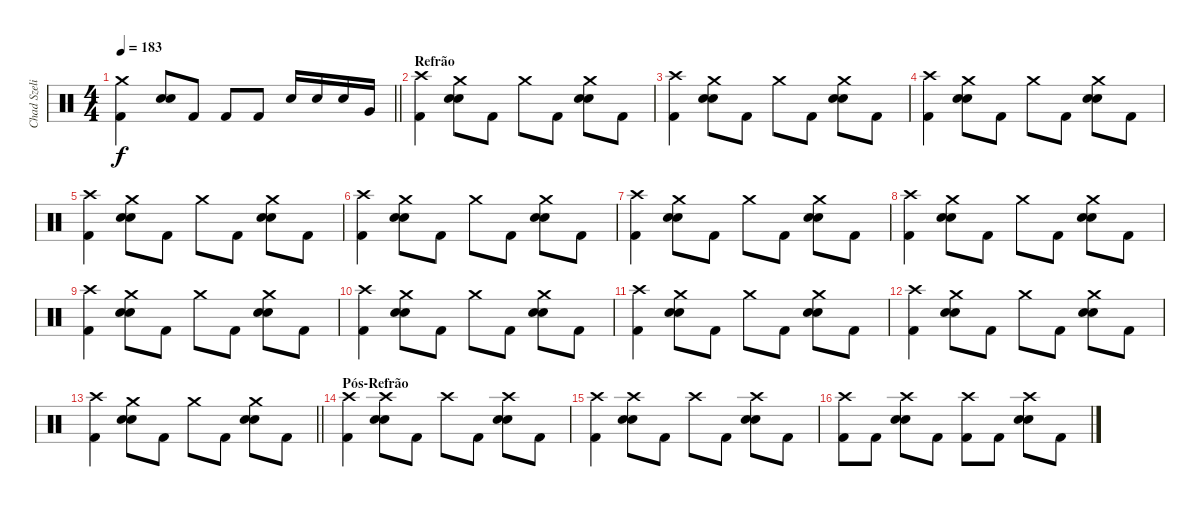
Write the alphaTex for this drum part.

\track ("Chad Szeliga" "Chad Szeli") {instrument percussion}
\staff {score}
\articulation defaults
\ts (4 4)
\tempo 183
\clef neutral
\barLineRight lightlight
\ks c
("Crash medium (hit)" "Kick (hit) 2").4{dy f} ("Snare (hit) 2" "Snare (hit) 2").8 "Kick (hit) 2".8 "Kick (hit) 2".8 "Kick (hit) 2".8 "Snare (hit) 2".16 "Snare (hit) 2".16 "Snare (hit) 2".16 "Very Low Tom (hit)".16 |
\section ("" "Refrão")
("Crash high (hit)" "Kick (hit) 2").4 ("Crash medium (hit)" "Snare (hit) 2" "Snare (hit) 2").8 "Kick (hit) 2".8 "Crash medium (hit)".8 "Kick (hit) 2".8 ("Crash medium (hit)" "Snare (hit) 2" "Snare (hit) 2").8 "Kick (hit) 2".8 |
("Crash high (hit)" "Kick (hit) 2").4 ("Crash medium (hit)" "Snare (hit) 2" "Snare (hit) 2").8 "Kick (hit) 2".8 "Crash medium (hit)".8 "Kick (hit) 2".8 ("Crash medium (hit)" "Snare (hit) 2" "Snare (hit) 2").8 "Kick (hit) 2".8 |
("Crash high (hit)" "Kick (hit) 2").4 ("Crash medium (hit)" "Snare (hit) 2" "Snare (hit) 2").8 "Kick (hit) 2".8 "Crash medium (hit)".8 "Kick (hit) 2".8 ("Crash medium (hit)" "Snare (hit) 2" "Snare (hit) 2").8 "Kick (hit) 2".8 |
("Crash high (hit)" "Kick (hit) 2").4 ("Crash medium (hit)" "Snare (hit) 2" "Snare (hit) 2").8 "Kick (hit) 2".8 "Crash medium (hit)".8 "Kick (hit) 2".8 ("Crash medium (hit)" "Snare (hit) 2" "Snare (hit) 2").8 "Kick (hit) 2".8 |
("Crash high (hit)" "Kick (hit) 2").4 ("Crash medium (hit)" "Snare (hit) 2" "Snare (hit) 2").8 "Kick (hit) 2".8 "Crash medium (hit)".8 "Kick (hit) 2".8 ("Crash medium (hit)" "Snare (hit) 2" "Snare (hit) 2").8 "Kick (hit) 2".8 |
("Crash high (hit)" "Kick (hit) 2").4 ("Crash medium (hit)" "Snare (hit) 2" "Snare (hit) 2").8 "Kick (hit) 2".8 "Crash medium (hit)".8 "Kick (hit) 2".8 ("Crash medium (hit)" "Snare (hit) 2" "Snare (hit) 2").8 "Kick (hit) 2".8 |
("Crash high (hit)" "Kick (hit) 2").4 ("Crash medium (hit)" "Snare (hit) 2" "Snare (hit) 2").8 "Kick (hit) 2".8 "Crash medium (hit)".8 "Kick (hit) 2".8 ("Crash medium (hit)" "Snare (hit) 2" "Snare (hit) 2").8 "Kick (hit) 2".8 |
("Crash high (hit)" "Kick (hit) 2").4 ("Crash medium (hit)" "Snare (hit) 2" "Snare (hit) 2").8 "Kick (hit) 2".8 "Crash medium (hit)".8 "Kick (hit) 2".8 ("Crash medium (hit)" "Snare (hit) 2" "Snare (hit) 2").8 "Kick (hit) 2".8 |
("Crash high (hit)" "Kick (hit) 2").4 ("Crash medium (hit)" "Snare (hit) 2" "Snare (hit) 2").8 "Kick (hit) 2".8 "Crash medium (hit)".8 "Kick (hit) 2".8 ("Crash medium (hit)" "Snare (hit) 2" "Snare (hit) 2").8 "Kick (hit) 2".8 |
("Crash high (hit)" "Kick (hit) 2").4 ("Crash medium (hit)" "Snare (hit) 2" "Snare (hit) 2").8 "Kick (hit) 2".8 "Crash medium (hit)".8 "Kick (hit) 2".8 ("Crash medium (hit)" "Snare (hit) 2" "Snare (hit) 2").8 "Kick (hit) 2".8 |
("Crash high (hit)" "Kick (hit) 2").4 ("Crash medium (hit)" "Snare (hit) 2" "Snare (hit) 2").8 "Kick (hit) 2".8 "Crash medium (hit)".8 "Kick (hit) 2".8 ("Crash medium (hit)" "Snare (hit) 2" "Snare (hit) 2").8 "Kick (hit) 2".8 |
\barLineRight lightlight
("Crash high (hit)" "Kick (hit) 2").4 ("Crash medium (hit)" "Snare (hit) 2" "Snare (hit) 2").8 "Kick (hit) 2".8 "Crash medium (hit)".8 "Kick (hit) 2".8 ("Crash medium (hit)" "Snare (hit) 2" "Snare (hit) 2").8 "Kick (hit) 2".8 |
\section ("" "Pós-Refrão")
("Crash high (hit)" "Kick (hit) 2").4 ("Crash high (hit)" "Snare (hit) 2" "Snare (hit) 2").8 "Kick (hit) 2".8 "Crash high (hit)".8 "Kick (hit) 2".8 ("Crash high (hit)" "Snare (hit) 2" "Snare (hit) 2").8 "Kick (hit) 2".8 |
("Crash high (hit)" "Kick (hit) 2").4 ("Crash high (hit)" "Snare (hit) 2" "Snare (hit) 2").8 "Kick (hit) 2".8 "Crash high (hit)".8 "Kick (hit) 2".8 ("Crash high (hit)" "Snare (hit) 2" "Snare (hit) 2").8 "Kick (hit) 2".8 |
("Crash high (hit)" "Kick (hit) 2").8 "Kick (hit) 2".8 ("Crash high (hit)" "Snare (hit) 2" "Snare (hit) 2").8 "Kick (hit) 2".8 ("Crash high (hit)" "Kick (hit) 2").8 "Kick (hit) 2".8 ("Crash high (hit)" "Snare (hit) 2" "Snare (hit) 2").8 "Kick (hit) 2".8
